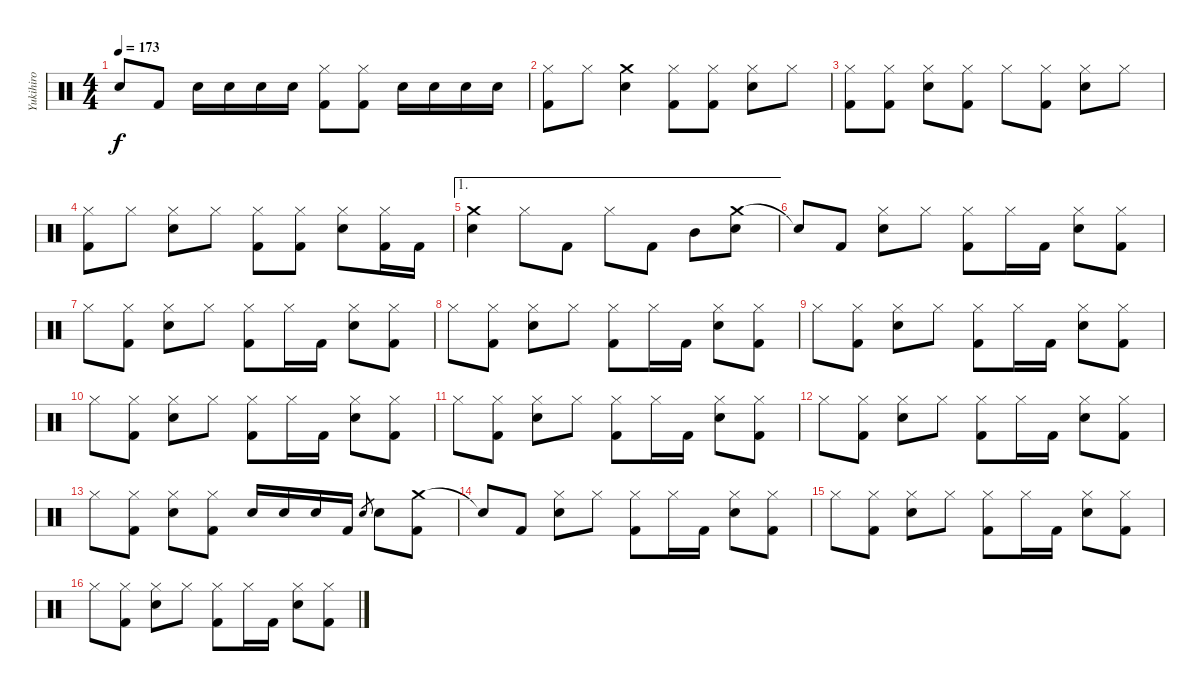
\track ("Yukihiro" "Yukihiro") {instrument percussion}
\staff {score}
\articulation defaults
\ts (4 4)
\tempo 173
\clef neutral
\ks c "Snare (hit)"{t}.8{dy f} "Kick (hit) 2".8 "Snare (hit) 2".16 "Snare (hit) 2".16 "Snare (hit) 2".16 "Snare (hit) 2".16
("Hi-Hat (closed)" "Kick (hit) 2").8 ("Hi-Hat (closed)" "Kick (hit) 2").8 "Snare (hit) 2".16 "Snare (hit) 2".16 "Snare (hit) 2".16 "Snare (hit) 2".16 |
("Hi-Hat (closed)" "Kick (hit) 2").8 "Hi-Hat (closed)".8 ("Crash medium (hit)" "Snare (hit) 2").4 ("Hi-Hat (closed)" "Kick (hit) 2").8 ("Hi-Hat (closed)" "Kick (hit) 2").8 ("Hi-Hat (closed)" "Snare (hit) 2").8 "Hi-Hat (closed)".8 |
("Hi-Hat (closed)" "Kick (hit) 2").8 ("Hi-Hat (closed)" "Kick (hit) 2").8 ("Hi-Hat (closed)" "Snare (hit) 2").8 ("Hi-Hat (closed)" "Kick (hit) 2").8 "Hi-Hat (closed)".8 ("Hi-Hat (closed)" "Kick (hit) 2").8 ("Hi-Hat (closed)" "Snare (hit) 2").8 "Hi-Hat (closed)".8 |
("Hi-Hat (closed)" "Kick (hit) 2").8 "Hi-Hat (closed)".8 ("Hi-Hat (closed)" "Snare (hit) 2").8 "Hi-Hat (closed)".8 ("Hi-Hat (closed)" "Kick (hit) 2").8 ("Hi-Hat (closed)" "Kick (hit) 2").8 ("Hi-Hat (closed)" "Snare (hit) 2").8 ("Hi-Hat (closed)" "Kick (hit) 2").16 "Kick (hit) 2".16 |
\ae 1
("Crash medium (hit)" "Snare (hit) 2").4 "Hi-Hat (closed)".8 "Kick (hit) 2".8 "Hi-Hat (closed)".8 "Kick (hit) 2".8 "Mid Tom (hit)".8 ("Crash medium (hit)" "Snare (hit) 2").8 |
"Snare (hit)"{t}.8 "Kick (hit) 2".8 ("Hi-Hat (closed)" "Snare (hit) 2").8 "Hi-Hat (closed)".8 ("Hi-Hat (closed)" "Kick (hit) 2").8 "Hi-Hat (closed)".16 "Kick (hit) 2".16 ("Hi-Hat (closed)" "Snare (hit) 2").8 ("Hi-Hat (closed)" "Kick (hit) 2").8 |
"Hi-Hat (closed)".8 ("Hi-Hat (closed)" "Kick (hit) 2").8 ("Hi-Hat (closed)" "Snare (hit) 2").8 "Hi-Hat (closed)".8 ("Hi-Hat (closed)" "Kick (hit) 2").8 "Hi-Hat (closed)".16 "Kick (hit) 2".16 ("Hi-Hat (closed)" "Snare (hit) 2").8 ("Hi-Hat (closed)" "Kick (hit) 2").8 |
"Hi-Hat (closed)".8 ("Hi-Hat (closed)" "Kick (hit) 2").8 ("Hi-Hat (closed)" "Snare (hit) 2").8 "Hi-Hat (closed)".8 ("Hi-Hat (closed)" "Kick (hit) 2").8 "Hi-Hat (closed)".16 "Kick (hit) 2".16 ("Hi-Hat (closed)" "Snare (hit) 2").8 ("Hi-Hat (closed)" "Kick (hit) 2").8 |
"Hi-Hat (closed)".8 ("Hi-Hat (closed)" "Kick (hit) 2").8 ("Hi-Hat (closed)" "Snare (hit) 2").8 "Hi-Hat (closed)".8 ("Hi-Hat (closed)" "Kick (hit) 2").8 "Hi-Hat (closed)".16 "Kick (hit) 2".16 ("Hi-Hat (closed)" "Snare (hit) 2").8 ("Hi-Hat (closed)" "Kick (hit) 2").8 |
"Hi-Hat (closed)".8 ("Hi-Hat (closed)" "Kick (hit) 2").8 ("Hi-Hat (closed)" "Snare (hit) 2").8 "Hi-Hat (closed)".8 ("Hi-Hat (closed)" "Kick (hit) 2").8 "Hi-Hat (closed)".16 "Kick (hit) 2".16 ("Hi-Hat (closed)" "Snare (hit) 2").8 ("Hi-Hat (closed)" "Kick (hit) 2").8 |
"Hi-Hat (closed)".8 ("Hi-Hat (closed)" "Kick (hit) 2").8 ("Hi-Hat (closed)" "Snare (hit) 2").8 "Hi-Hat (closed)".8 ("Hi-Hat (closed)" "Kick (hit) 2").8 "Hi-Hat (closed)".16 "Kick (hit) 2".16 ("Hi-Hat (closed)" "Snare (hit) 2").8 ("Hi-Hat (closed)" "Kick (hit) 2").8 |
"Hi-Hat (closed)".8 ("Hi-Hat (closed)" "Kick (hit) 2").8 ("Hi-Hat (closed)" "Snare (hit) 2").8 "Hi-Hat (closed)".8 ("Hi-Hat (closed)" "Kick (hit) 2").8 "Hi-Hat (closed)".16 "Kick (hit) 2".16 ("Hi-Hat (closed)" "Snare (hit) 2").8 ("Hi-Hat (closed)" "Kick (hit) 2").8 |
"Hi-Hat (closed)".8 ("Hi-Hat (closed)" "Kick (hit) 2").8 ("Hi-Hat (closed)" "Snare (hit) 2").8 ("Hi-Hat (closed)" "Kick (hit) 2").8 "Snare (hit) 2".16 "Snare (hit) 2".16 "Snare (hit) 2".16 "Kick (hit) 2".16 "Snare (hit) 2".8{gr} "Snare (hit) 2".8 ("Crash medium (hit)" "Kick (hit) 2").8 |
"Snare (hit)"{t}.8 "Kick (hit) 2".8 ("Hi-Hat (closed)" "Snare (hit) 2").8 "Hi-Hat (closed)".8 ("Hi-Hat (closed)" "Kick (hit) 2").8 "Hi-Hat (closed)".16 "Kick (hit) 2".16 ("Hi-Hat (closed)" "Snare (hit) 2").8 ("Hi-Hat (closed)" "Kick (hit) 2").8 |
"Hi-Hat (closed)".8 ("Hi-Hat (closed)" "Kick (hit) 2").8 ("Hi-Hat (closed)" "Snare (hit) 2").8 "Hi-Hat (closed)".8 ("Hi-Hat (closed)" "Kick (hit) 2").8 "Hi-Hat (closed)".16 "Kick (hit) 2".16 ("Hi-Hat (closed)" "Snare (hit) 2").8 ("Hi-Hat (closed)" "Kick (hit) 2").8 |
"Hi-Hat (closed)".8 ("Hi-Hat (closed)" "Kick (hit) 2").8 ("Hi-Hat (closed)" "Snare (hit) 2").8 "Hi-Hat (closed)".8 ("Hi-Hat (closed)" "Kick (hit) 2").8 "Hi-Hat (closed)".16 "Kick (hit) 2".16 ("Hi-Hat (closed)" "Snare (hit) 2").8 ("Hi-Hat (closed)" "Kick (hit) 2").8
